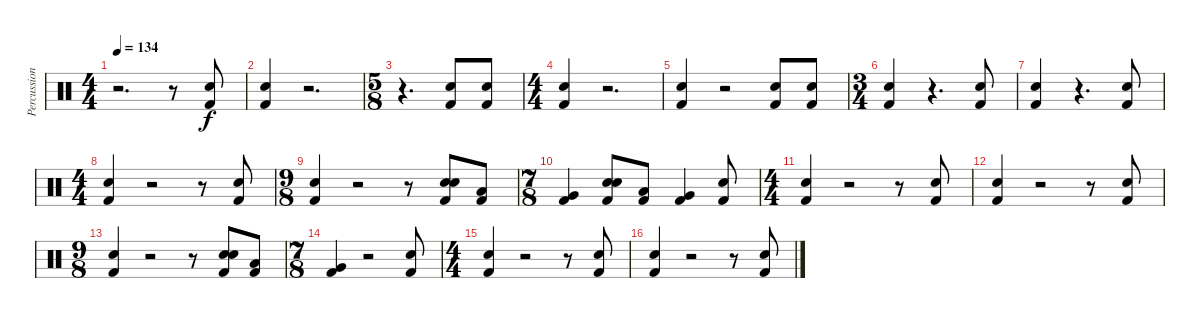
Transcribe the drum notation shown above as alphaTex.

\track ("Percussion" "Percussion") {instrument percussion}
\staff {score}
\articulation defaults
\ts (4 4)
\tempo 134
\clef neutral
\ks c
r.2{d dy f} r.8 ("Snare (hit) 2" "Kick (hit) 2").8 |
("Snare (hit) 2" "Kick (hit) 2").4 r.2{d} |
\ts (5 8)
r.4{d} ("Snare (hit) 2" "Kick (hit) 2").8 ("Snare (hit) 2" "Kick (hit) 2").8 |
\ts (4 4)
("Snare (hit) 2" "Kick (hit) 2").4 r.2{d} |
("Snare (hit) 2" "Kick (hit) 2").4 r.2 ("Snare (hit) 2" "Kick (hit) 2").8 ("Snare (hit) 2" "Kick (hit) 2").8 |
\ts (3 4)
("Snare (hit) 2" "Kick (hit) 2").4 r.4{d} ("Snare (hit) 2" "Kick (hit) 2").8 |
("Snare (hit) 2" "Kick (hit) 2").4 r.4{d} ("Snare (hit) 2" "Kick (hit) 2").8 |
\ts (4 4)
("Snare (hit) 2" "Kick (hit) 2").4 r.2 r.8 ("Snare (hit) 2" "Kick (hit) 2").8 |
\ts (9 8)
("Snare (hit) 2" "Kick (hit) 2").4 r.2 r.8 ("Snare (hit) 2" "Electric Snare (hit)" "Kick (hit) 2").8 ("Low Tom (hit)" "Kick (hit) 2").8 |
\ts (7 8)
("Very Low Tom (hit)" "Kick (hit) 2").4 ("Snare (hit) 2" "Electric Snare (hit)" "Kick (hit) 2").8 ("Low Tom (hit)" "Kick (hit) 2").8 ("Very Low Tom (hit)" "Kick (hit) 2").4 ("Snare (hit) 2" "Kick (hit) 2").8 |
\ts (4 4)
("Snare (hit) 2" "Kick (hit) 2").4 r.2 r.8 ("Snare (hit) 2" "Kick (hit) 2").8 |
("Snare (hit) 2" "Kick (hit) 2").4 r.2 r.8 ("Snare (hit) 2" "Kick (hit) 2").8 |
\ts (9 8)
("Snare (hit) 2" "Kick (hit) 2").4 r.2 r.8 ("Electric Snare (hit)" "Snare (hit) 2" "Kick (hit) 2").8 ("Low Tom (hit)" "Kick (hit) 2").8 |
\ts (7 8)
("Very Low Tom (hit)" "Kick (hit) 2").4 r.2 ("Snare (hit) 2" "Kick (hit) 2").8 |
\ts (4 4)
("Snare (hit) 2" "Kick (hit) 2").4 r.2 r.8 ("Snare (hit) 2" "Kick (hit) 2").8 |
("Snare (hit) 2" "Kick (hit) 2").4 r.2 r.8 ("Snare (hit) 2" "Kick (hit) 2").8
